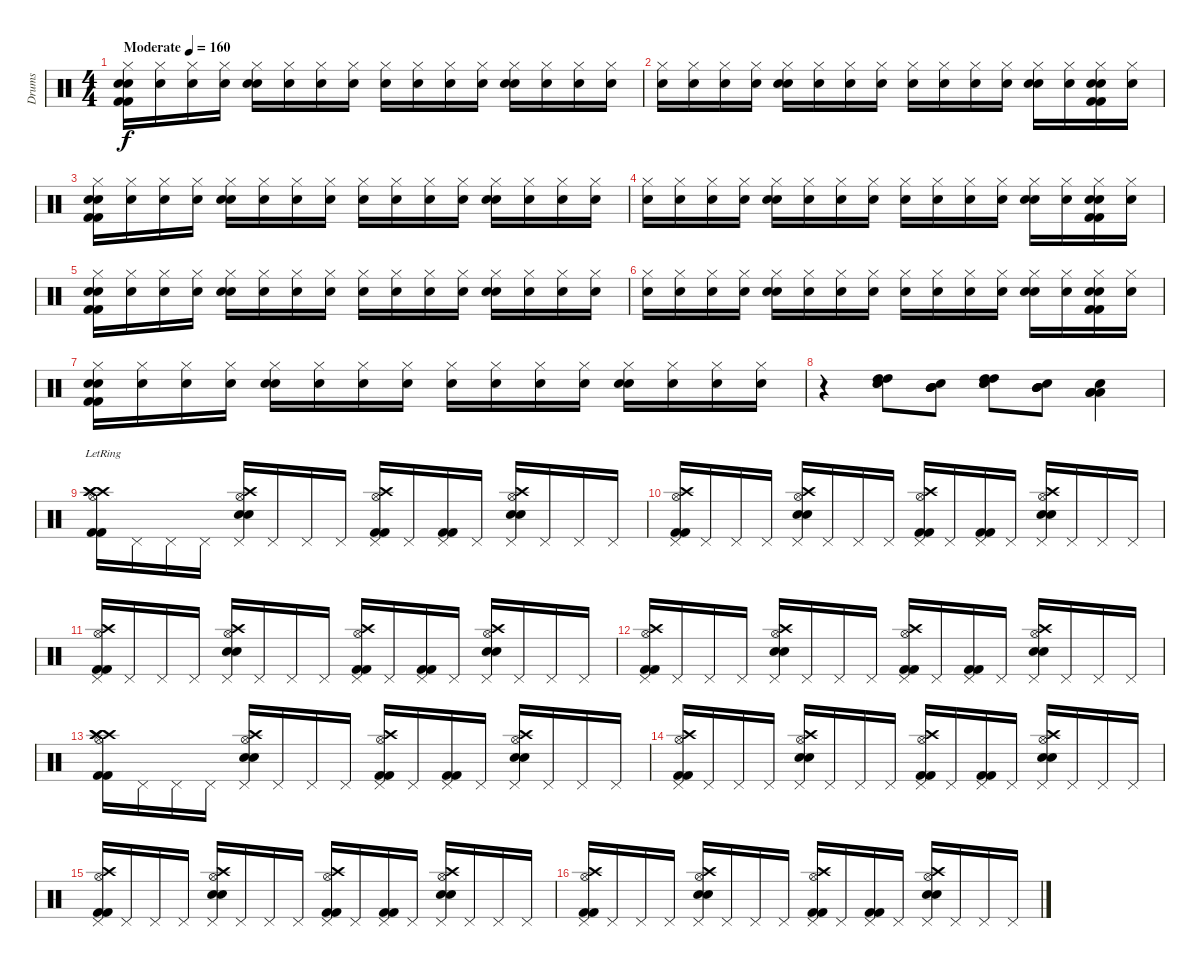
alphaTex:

\track ("Drums" "Drums") {instrument percussion bank 17}
\staff {score}
\articulation defaults
\ts (4 4)
\tempo (160 "Moderate")
\clef neutral
\ks c
("Snare (hit) 2" "Electric Snare (hit)" "Hi-Hat (closed)" "Kick (hit) 2" "Kick (hit) 2").16{dy f} ("Snare (hit) 2" "Hi-Hat (closed)").16 ("Snare (hit) 2" "Hi-Hat (closed)").16 ("Snare (hit) 2" "Hi-Hat (closed)").16 ("Snare (hit) 2" "Snare (hit) 2" "Hi-Hat (closed)").16 ("Snare (hit) 2" "Hi-Hat (closed)").16 ("Snare (hit) 2" "Hi-Hat (closed)").16 ("Snare (hit) 2" "Hi-Hat (closed)").16 ("Snare (hit) 2" "Hi-Hat (closed)").16 ("Snare (hit) 2" "Hi-Hat (closed)").16 ("Snare (hit) 2" "Hi-Hat (closed)").16 ("Snare (hit) 2" "Hi-Hat (closed)").16 ("Snare (hit) 2" "Snare (hit) 2" "Hi-Hat (closed)").16 ("Snare (hit) 2" "Hi-Hat (closed)").16 ("Snare (hit) 2" "Hi-Hat (closed)").16 ("Snare (hit) 2" "Hi-Hat (closed)").16 |
("Snare (hit) 2" "Hi-Hat (closed)").16 ("Snare (hit) 2" "Hi-Hat (closed)").16 ("Snare (hit) 2" "Hi-Hat (closed)").16 ("Snare (hit) 2" "Hi-Hat (closed)").16 ("Snare (hit) 2" "Snare (hit) 2" "Hi-Hat (closed)").16 ("Snare (hit) 2" "Hi-Hat (closed)").16 ("Snare (hit) 2" "Hi-Hat (closed)").16 ("Snare (hit) 2" "Hi-Hat (closed)").16 ("Snare (hit) 2" "Hi-Hat (closed)").16 ("Snare (hit) 2" "Hi-Hat (closed)").16 ("Snare (hit) 2" "Hi-Hat (closed)").16 ("Snare (hit) 2" "Hi-Hat (closed)").16 ("Snare (hit) 2" "Snare (hit) 2" "Hi-Hat (closed)").16 ("Snare (hit) 2" "Hi-Hat (closed)").16 ("Snare (hit) 2" "Electric Snare (hit)" "Hi-Hat (closed)" "Kick (hit) 2" "Kick (hit) 2").16 ("Snare (hit) 2" "Hi-Hat (closed)").16 |
("Snare (hit) 2" "Electric Snare (hit)" "Hi-Hat (closed)" "Kick (hit) 2" "Kick (hit) 2").16 ("Snare (hit) 2" "Hi-Hat (closed)").16 ("Snare (hit) 2" "Hi-Hat (closed)").16 ("Snare (hit) 2" "Hi-Hat (closed)").16 ("Snare (hit) 2" "Snare (hit) 2" "Hi-Hat (closed)").16 ("Snare (hit) 2" "Hi-Hat (closed)").16 ("Snare (hit) 2" "Hi-Hat (closed)").16 ("Snare (hit) 2" "Hi-Hat (closed)").16 ("Snare (hit) 2" "Hi-Hat (closed)").16 ("Snare (hit) 2" "Hi-Hat (closed)").16 ("Snare (hit) 2" "Hi-Hat (closed)").16 ("Snare (hit) 2" "Hi-Hat (closed)").16 ("Snare (hit) 2" "Snare (hit) 2" "Hi-Hat (closed)").16 ("Snare (hit) 2" "Hi-Hat (closed)").16 ("Snare (hit) 2" "Hi-Hat (closed)").16 ("Snare (hit) 2" "Hi-Hat (closed)").16 |
("Snare (hit) 2" "Hi-Hat (closed)").16 ("Snare (hit) 2" "Hi-Hat (closed)").16 ("Snare (hit) 2" "Hi-Hat (closed)").16 ("Snare (hit) 2" "Hi-Hat (closed)").16 ("Snare (hit) 2" "Snare (hit) 2" "Hi-Hat (closed)").16 ("Snare (hit) 2" "Hi-Hat (closed)").16 ("Snare (hit) 2" "Hi-Hat (closed)").16 ("Snare (hit) 2" "Hi-Hat (closed)").16 ("Snare (hit) 2" "Hi-Hat (closed)").16 ("Snare (hit) 2" "Hi-Hat (closed)").16 ("Snare (hit) 2" "Hi-Hat (closed)").16 ("Snare (hit) 2" "Hi-Hat (closed)").16 ("Snare (hit) 2" "Snare (hit) 2" "Hi-Hat (closed)").16 ("Snare (hit) 2" "Hi-Hat (closed)").16 ("Snare (hit) 2" "Electric Snare (hit)" "Hi-Hat (closed)" "Kick (hit) 2" "Kick (hit) 2").16 ("Snare (hit) 2" "Hi-Hat (closed)").16 |
("Snare (hit) 2" "Electric Snare (hit)" "Hi-Hat (closed)" "Kick (hit) 2" "Kick (hit) 2").16 ("Snare (hit) 2" "Hi-Hat (closed)").16 ("Snare (hit) 2" "Hi-Hat (closed)").16 ("Snare (hit) 2" "Hi-Hat (closed)").16 ("Snare (hit) 2" "Snare (hit) 2" "Hi-Hat (closed)").16 ("Snare (hit) 2" "Hi-Hat (closed)").16 ("Snare (hit) 2" "Hi-Hat (closed)").16 ("Snare (hit) 2" "Hi-Hat (closed)").16 ("Snare (hit) 2" "Hi-Hat (closed)").16 ("Snare (hit) 2" "Hi-Hat (closed)").16 ("Snare (hit) 2" "Hi-Hat (closed)").16 ("Snare (hit) 2" "Hi-Hat (closed)").16 ("Snare (hit) 2" "Snare (hit) 2" "Hi-Hat (closed)").16 ("Snare (hit) 2" "Hi-Hat (closed)").16 ("Snare (hit) 2" "Hi-Hat (closed)").16 ("Snare (hit) 2" "Hi-Hat (closed)").16 |
("Snare (hit) 2" "Hi-Hat (closed)").16 ("Snare (hit) 2" "Hi-Hat (closed)").16 ("Snare (hit) 2" "Hi-Hat (closed)").16 ("Snare (hit) 2" "Hi-Hat (closed)").16 ("Snare (hit) 2" "Snare (hit) 2" "Hi-Hat (closed)").16 ("Snare (hit) 2" "Hi-Hat (closed)").16 ("Snare (hit) 2" "Hi-Hat (closed)").16 ("Snare (hit) 2" "Hi-Hat (closed)").16 ("Snare (hit) 2" "Hi-Hat (closed)").16 ("Snare (hit) 2" "Hi-Hat (closed)").16 ("Snare (hit) 2" "Hi-Hat (closed)").16 ("Snare (hit) 2" "Hi-Hat (closed)").16 ("Snare (hit) 2" "Snare (hit) 2" "Hi-Hat (closed)").16 ("Snare (hit) 2" "Hi-Hat (closed)").16 ("Snare (hit) 2" "Electric Snare (hit)" "Hi-Hat (closed)" "Kick (hit) 2" "Kick (hit) 2").16 ("Snare (hit) 2" "Hi-Hat (closed)").16 |
("Snare (hit) 2" "Electric Snare (hit)" "Hi-Hat (closed)" "Kick (hit) 2" "Kick (hit) 2").16 ("Snare (hit) 2" "Hi-Hat (closed)").16 ("Snare (hit) 2" "Hi-Hat (closed)").16 ("Snare (hit) 2" "Hi-Hat (closed)").16 ("Snare (hit) 2" "Snare (hit) 2" "Hi-Hat (closed)").16 ("Snare (hit) 2" "Hi-Hat (closed)").16 ("Snare (hit) 2" "Hi-Hat (closed)").16 ("Snare (hit) 2" "Hi-Hat (closed)").16 ("Snare (hit) 2" "Hi-Hat (closed)").16 ("Snare (hit) 2" "Hi-Hat (closed)").16 ("Snare (hit) 2" "Hi-Hat (closed)").16 ("Snare (hit) 2" "Hi-Hat (closed)").16 ("Snare (hit) 2" "Snare (hit) 2" "Hi-Hat (closed)").16 ("Snare (hit) 2" "Hi-Hat (closed)").16 ("Snare (hit) 2" "Hi-Hat (closed)").16 ("Snare (hit) 2" "Hi-Hat (closed)").16 |
r.4 ("High Tom (hit)" "High Tom (hit)" "Electric Snare (hit)" "Electric Snare (hit)").8 ("Mid Tom (hit)" "Mid Tom (hit)" "Mid Tom (hit)" "Electric Snare (hit)").8 ("High Tom (hit)" "High Tom (hit)" "Electric Snare (hit)" "Electric Snare (hit)").8 ("Mid Tom (hit)" "Mid Tom (hit)" "Mid Tom (hit)" "Electric Snare (hit)").8 ("Low Tom (hit)" "Low Tom (hit)" "Low Tom (hit)" "Electric Snare (hit)").4 |
("Kick (hit) 2" "Kick (hit) 2" "Hi-Hat (open)" "Crash high (hit)"{lr} "Crash high (hit)" "Crash high (hit)"{lr}).16 "Pedal Hi-Hat (hit)".16 "Pedal Hi-Hat (hit)".16 "Pedal Hi-Hat (hit)".16 ("Snare (hit) 2" "Snare (hit) 2" "Hi-Hat (open)" "Pedal Hi-Hat (hit)" "Crash high (hit)").16 "Pedal Hi-Hat (hit)".16 "Pedal Hi-Hat (hit)".16 "Pedal Hi-Hat (hit)".16 ("Kick (hit) 2" "Kick (hit) 2" "Hi-Hat (open)" "Pedal Hi-Hat (hit)" "Crash high (hit)").16 "Pedal Hi-Hat (hit)".16 ("Kick (hit) 2" "Kick (hit) 2" "Pedal Hi-Hat (hit)").16 "Pedal Hi-Hat (hit)".16 ("Snare (hit) 2" "Snare (hit) 2" "Hi-Hat (open)" "Pedal Hi-Hat (hit)" "Crash high (hit)").16 "Pedal Hi-Hat (hit)".16 "Pedal Hi-Hat (hit)".16 "Pedal Hi-Hat (hit)".16 |
("Kick (hit) 2" "Kick (hit) 2" "Hi-Hat (open)" "Pedal Hi-Hat (hit)" "Crash high (hit)").16 "Pedal Hi-Hat (hit)".16 "Pedal Hi-Hat (hit)".16 "Pedal Hi-Hat (hit)".16 ("Snare (hit) 2" "Snare (hit) 2" "Hi-Hat (open)" "Pedal Hi-Hat (hit)" "Crash high (hit)").16 "Pedal Hi-Hat (hit)".16 "Pedal Hi-Hat (hit)".16 "Pedal Hi-Hat (hit)".16 ("Kick (hit) 2" "Kick (hit) 2" "Hi-Hat (open)" "Pedal Hi-Hat (hit)" "Crash high (hit)").16 "Pedal Hi-Hat (hit)".16 ("Kick (hit) 2" "Kick (hit) 2" "Pedal Hi-Hat (hit)").16 "Pedal Hi-Hat (hit)".16 ("Snare (hit) 2" "Snare (hit) 2" "Hi-Hat (open)" "Pedal Hi-Hat (hit)" "Crash high (hit)").16 "Pedal Hi-Hat (hit)".16 "Pedal Hi-Hat (hit)".16 "Pedal Hi-Hat (hit)".16 |
("Kick (hit) 2" "Kick (hit) 2" "Hi-Hat (open)" "Pedal Hi-Hat (hit)" "Crash high (hit)").16 "Pedal Hi-Hat (hit)".16 "Pedal Hi-Hat (hit)".16 "Pedal Hi-Hat (hit)".16 ("Snare (hit) 2" "Snare (hit) 2" "Hi-Hat (open)" "Pedal Hi-Hat (hit)" "Crash high (hit)").16 "Pedal Hi-Hat (hit)".16 "Pedal Hi-Hat (hit)".16 "Pedal Hi-Hat (hit)".16 ("Kick (hit) 2" "Kick (hit) 2" "Hi-Hat (open)" "Pedal Hi-Hat (hit)" "Crash high (hit)").16 "Pedal Hi-Hat (hit)".16 ("Kick (hit) 2" "Kick (hit) 2" "Pedal Hi-Hat (hit)").16 "Pedal Hi-Hat (hit)".16 ("Snare (hit) 2" "Snare (hit) 2" "Hi-Hat (open)" "Pedal Hi-Hat (hit)" "Crash high (hit)").16 "Pedal Hi-Hat (hit)".16 "Pedal Hi-Hat (hit)".16 "Pedal Hi-Hat (hit)".16 |
("Kick (hit) 2" "Kick (hit) 2" "Hi-Hat (open)" "Pedal Hi-Hat (hit)" "Crash high (hit)").16 "Pedal Hi-Hat (hit)".16 "Pedal Hi-Hat (hit)".16 "Pedal Hi-Hat (hit)".16 ("Snare (hit) 2" "Snare (hit) 2" "Hi-Hat (open)" "Pedal Hi-Hat (hit)" "Crash high (hit)").16 "Pedal Hi-Hat (hit)".16 "Pedal Hi-Hat (hit)".16 "Pedal Hi-Hat (hit)".16 ("Kick (hit) 2" "Kick (hit) 2" "Hi-Hat (open)" "Pedal Hi-Hat (hit)" "Crash high (hit)").16 "Pedal Hi-Hat (hit)".16 ("Kick (hit) 2" "Kick (hit) 2" "Pedal Hi-Hat (hit)").16 "Pedal Hi-Hat (hit)".16 ("Snare (hit) 2" "Snare (hit) 2" "Hi-Hat (open)" "Pedal Hi-Hat (hit)" "Crash high (hit)").16 "Pedal Hi-Hat (hit)".16 "Pedal Hi-Hat (hit)".16 "Pedal Hi-Hat (hit)".16 |
("Kick (hit) 2" "Kick (hit) 2" "Hi-Hat (open)" "Crash high (hit)" "Crash high (hit)" "Crash high (hit)").16 "Pedal Hi-Hat (hit)".16 "Pedal Hi-Hat (hit)".16 "Pedal Hi-Hat (hit)".16 ("Snare (hit) 2" "Snare (hit) 2" "Hi-Hat (open)" "Pedal Hi-Hat (hit)" "Crash high (hit)").16 "Pedal Hi-Hat (hit)".16 "Pedal Hi-Hat (hit)".16 "Pedal Hi-Hat (hit)".16 ("Kick (hit) 2" "Kick (hit) 2" "Hi-Hat (open)" "Pedal Hi-Hat (hit)" "Crash high (hit)").16 "Pedal Hi-Hat (hit)".16 ("Kick (hit) 2" "Kick (hit) 2" "Pedal Hi-Hat (hit)").16 "Pedal Hi-Hat (hit)".16 ("Snare (hit) 2" "Snare (hit) 2" "Hi-Hat (open)" "Pedal Hi-Hat (hit)" "Crash high (hit)").16 "Pedal Hi-Hat (hit)".16 "Pedal Hi-Hat (hit)".16 "Pedal Hi-Hat (hit)".16 |
("Kick (hit) 2" "Kick (hit) 2" "Hi-Hat (open)" "Pedal Hi-Hat (hit)" "Crash high (hit)").16 "Pedal Hi-Hat (hit)".16 "Pedal Hi-Hat (hit)".16 "Pedal Hi-Hat (hit)".16 ("Snare (hit) 2" "Snare (hit) 2" "Hi-Hat (open)" "Pedal Hi-Hat (hit)" "Crash high (hit)").16 "Pedal Hi-Hat (hit)".16 "Pedal Hi-Hat (hit)".16 "Pedal Hi-Hat (hit)".16 ("Kick (hit) 2" "Kick (hit) 2" "Hi-Hat (open)" "Pedal Hi-Hat (hit)" "Crash high (hit)").16 "Pedal Hi-Hat (hit)".16 ("Kick (hit) 2" "Kick (hit) 2" "Pedal Hi-Hat (hit)").16 "Pedal Hi-Hat (hit)".16 ("Snare (hit) 2" "Snare (hit) 2" "Hi-Hat (open)" "Pedal Hi-Hat (hit)" "Crash high (hit)").16 "Pedal Hi-Hat (hit)".16 "Pedal Hi-Hat (hit)".16 "Pedal Hi-Hat (hit)".16 |
("Kick (hit) 2" "Kick (hit) 2" "Hi-Hat (open)" "Pedal Hi-Hat (hit)" "Crash high (hit)").16 "Pedal Hi-Hat (hit)".16 "Pedal Hi-Hat (hit)".16 "Pedal Hi-Hat (hit)".16 ("Snare (hit) 2" "Snare (hit) 2" "Hi-Hat (open)" "Pedal Hi-Hat (hit)" "Crash high (hit)").16 "Pedal Hi-Hat (hit)".16 "Pedal Hi-Hat (hit)".16 "Pedal Hi-Hat (hit)".16 ("Kick (hit) 2" "Kick (hit) 2" "Hi-Hat (open)" "Pedal Hi-Hat (hit)" "Crash high (hit)").16 "Pedal Hi-Hat (hit)".16 ("Kick (hit) 2" "Kick (hit) 2" "Pedal Hi-Hat (hit)").16 "Pedal Hi-Hat (hit)".16 ("Snare (hit) 2" "Snare (hit) 2" "Hi-Hat (open)" "Pedal Hi-Hat (hit)" "Crash high (hit)").16 "Pedal Hi-Hat (hit)".16 "Pedal Hi-Hat (hit)".16 "Pedal Hi-Hat (hit)".16 |
("Kick (hit) 2" "Kick (hit) 2" "Hi-Hat (open)" "Pedal Hi-Hat (hit)" "Crash high (hit)").16 "Pedal Hi-Hat (hit)".16 "Pedal Hi-Hat (hit)".16 "Pedal Hi-Hat (hit)".16 ("Snare (hit) 2" "Snare (hit) 2" "Hi-Hat (open)" "Pedal Hi-Hat (hit)" "Crash high (hit)").16 "Pedal Hi-Hat (hit)".16 "Pedal Hi-Hat (hit)".16 "Pedal Hi-Hat (hit)".16 ("Kick (hit) 2" "Kick (hit) 2" "Hi-Hat (open)" "Pedal Hi-Hat (hit)" "Crash high (hit)").16 "Pedal Hi-Hat (hit)".16 ("Kick (hit) 2" "Kick (hit) 2" "Pedal Hi-Hat (hit)").16 "Pedal Hi-Hat (hit)".16 ("Snare (hit) 2" "Snare (hit) 2" "Hi-Hat (open)" "Pedal Hi-Hat (hit)" "Crash high (hit)").16 "Pedal Hi-Hat (hit)".16 "Pedal Hi-Hat (hit)".16 "Pedal Hi-Hat (hit)".16
